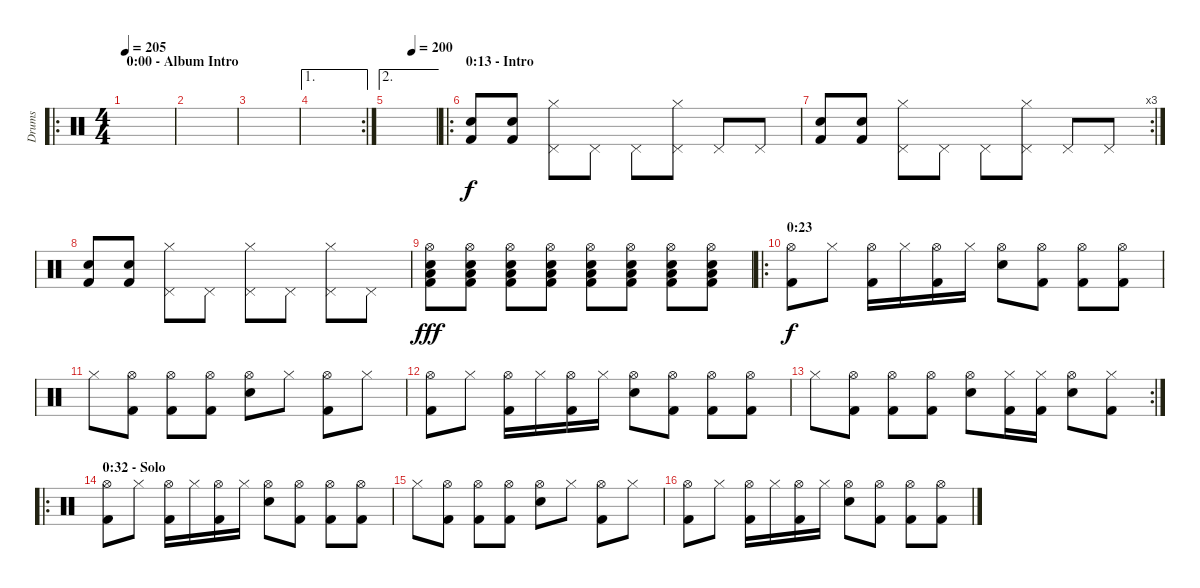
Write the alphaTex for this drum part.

\track ("Drums" "Drums") {instrument percussion}
\staff {score}
\articulation defaults
\ro
\ts (4 4)
\section ("" "0:00 - Album Intro")
\tempo 205
\tempo 140
\tempo 205
\clef neutral
\ks c
|
|
|
\ae 1
\rc 2
|
\ae 2
\tempo (200 0.5)
|
\ro
\section ("" "0:13 - Intro")
("Electric Snare (hit)" "Kick (hit) 2").8 ("Electric Snare (hit)" "Kick (hit) 2").8 ("Hi-Hat (closed)" "Pedal Hi-Hat (hit)").8 "Pedal Hi-Hat (hit)".8 "Pedal Hi-Hat (hit)".8 ("Hi-Hat (closed)" "Pedal Hi-Hat (hit)").8 "Pedal Hi-Hat (hit)".8 "Pedal Hi-Hat (hit)".8 |
\rc 3
("Electric Snare (hit)" "Kick (hit) 2").8 ("Electric Snare (hit)" "Kick (hit) 2").8 ("Hi-Hat (closed)" "Pedal Hi-Hat (hit)").8 "Pedal Hi-Hat (hit)".8 "Pedal Hi-Hat (hit)".8 ("Hi-Hat (closed)" "Pedal Hi-Hat (hit)").8 "Pedal Hi-Hat (hit)".8 "Pedal Hi-Hat (hit)".8 |
("Electric Snare (hit)" "Kick (hit) 2").8 ("Electric Snare (hit)" "Kick (hit) 2").8 ("Hi-Hat (closed)" "Pedal Hi-Hat (hit)").8 "Pedal Hi-Hat (hit)".8 ("Hi-Hat (closed)" "Pedal Hi-Hat (hit)").8 "Pedal Hi-Hat (hit)".8 ("Hi-Hat (closed)" "Pedal Hi-Hat (hit)").8 "Pedal Hi-Hat (hit)".8 |
("Hi-Hat (open)" "Low Floor Tom (hit)" "Electric Snare (hit)" "Kick (hit) 2").8{dy fff} ("Hi-Hat (open)" "Low Floor Tom (hit)" "Electric Snare (hit)" "Kick (hit) 2").8 ("Hi-Hat (open)" "Low Floor Tom (hit)" "Electric Snare (hit)" "Kick (hit) 2").8 ("Hi-Hat (open)" "Low Floor Tom (hit)" "Electric Snare (hit)" "Kick (hit) 2").8 ("Hi-Hat (open)" "Low Floor Tom (hit)" "Electric Snare (hit)" "Kick (hit) 2").8 ("Hi-Hat (open)" "Low Floor Tom (hit)" "Electric Snare (hit)" "Kick (hit) 2").8 ("Hi-Hat (open)" "Low Floor Tom (hit)" "Electric Snare (hit)" "Kick (hit) 2").8 ("Hi-Hat (open)" "Low Floor Tom (hit)" "Electric Snare (hit)" "Kick (hit) 2").8 |
\ro
\section ("" "0:23 ")
("Hi-Hat (open)" "Kick (hit) 2").8{dy f} "Hi-Hat (closed)".8 ("Hi-Hat (open)" "Kick (hit) 2").16 "Hi-Hat (closed)".16 ("Hi-Hat (open)" "Kick (hit) 2").16 "Hi-Hat (closed)".16 ("Hi-Hat (open)" "Electric Snare (hit)").8 ("Hi-Hat (open)" "Kick (hit) 2").8 ("Hi-Hat (open)" "Kick (hit) 2").8 ("Hi-Hat (open)" "Kick (hit) 2").8 |
"Hi-Hat (closed)".8 ("Hi-Hat (open)" "Kick (hit) 2").8 ("Hi-Hat (open)" "Kick (hit) 2").8 ("Hi-Hat (open)" "Kick (hit) 2").8 ("Hi-Hat (open)" "Electric Snare (hit)").8 "Hi-Hat (closed)".8 ("Hi-Hat (open)" "Kick (hit) 2").8 "Hi-Hat (closed)".8 |
("Hi-Hat (open)" "Kick (hit) 2").8 "Hi-Hat (closed)".8 ("Hi-Hat (open)" "Kick (hit) 2").16 "Hi-Hat (closed)".16 ("Hi-Hat (open)" "Kick (hit) 2").16 "Hi-Hat (closed)".16 ("Hi-Hat (open)" "Electric Snare (hit)").8 ("Hi-Hat (open)" "Kick (hit) 2").8 ("Hi-Hat (open)" "Kick (hit) 2").8 ("Hi-Hat (open)" "Kick (hit) 2").8 |
\rc 2 "Hi-Hat (closed)".8
("Hi-Hat (open)" "Kick (hit) 2").8 ("Hi-Hat (open)" "Kick (hit) 2").8 ("Hi-Hat (open)" "Kick (hit) 2").8 ("Hi-Hat (open)" "Electric Snare (hit)").8 ("Hi-Hat (closed)" "Kick (hit) 2").16 ("Hi-Hat (closed)" "Kick (hit) 2").16 ("Hi-Hat (open)" "Electric Snare (hit)").8 ("Hi-Hat (closed)" "Kick (hit) 2").8 |
\ro
\section ("" "0:32 - Solo")
("Hi-Hat (open)" "Kick (hit) 2").8 "Hi-Hat (closed)".8 ("Hi-Hat (open)" "Kick (hit) 2").16 "Hi-Hat (closed)".16 ("Hi-Hat (open)" "Kick (hit) 2").16 "Hi-Hat (closed)".16 ("Hi-Hat (open)" "Electric Snare (hit)").8 ("Hi-Hat (open)" "Kick (hit) 2").8 ("Hi-Hat (open)" "Kick (hit) 2").8 ("Hi-Hat (open)" "Kick (hit) 2").8 |
"Hi-Hat (closed)".8 ("Hi-Hat (open)" "Kick (hit) 2").8 ("Hi-Hat (open)" "Kick (hit) 2").8 ("Hi-Hat (open)" "Kick (hit) 2").8 ("Hi-Hat (open)" "Electric Snare (hit)").8 "Hi-Hat (closed)".8 ("Hi-Hat (open)" "Kick (hit) 2").8 "Hi-Hat (closed)".8 |
("Hi-Hat (open)" "Kick (hit) 2").8 "Hi-Hat (closed)".8 ("Hi-Hat (open)" "Kick (hit) 2").16 "Hi-Hat (closed)".16 ("Hi-Hat (open)" "Kick (hit) 2").16 "Hi-Hat (closed)".16 ("Hi-Hat (open)" "Electric Snare (hit)").8 ("Hi-Hat (open)" "Kick (hit) 2").8 ("Hi-Hat (open)" "Kick (hit) 2").8 ("Hi-Hat (open)" "Kick (hit) 2").8
